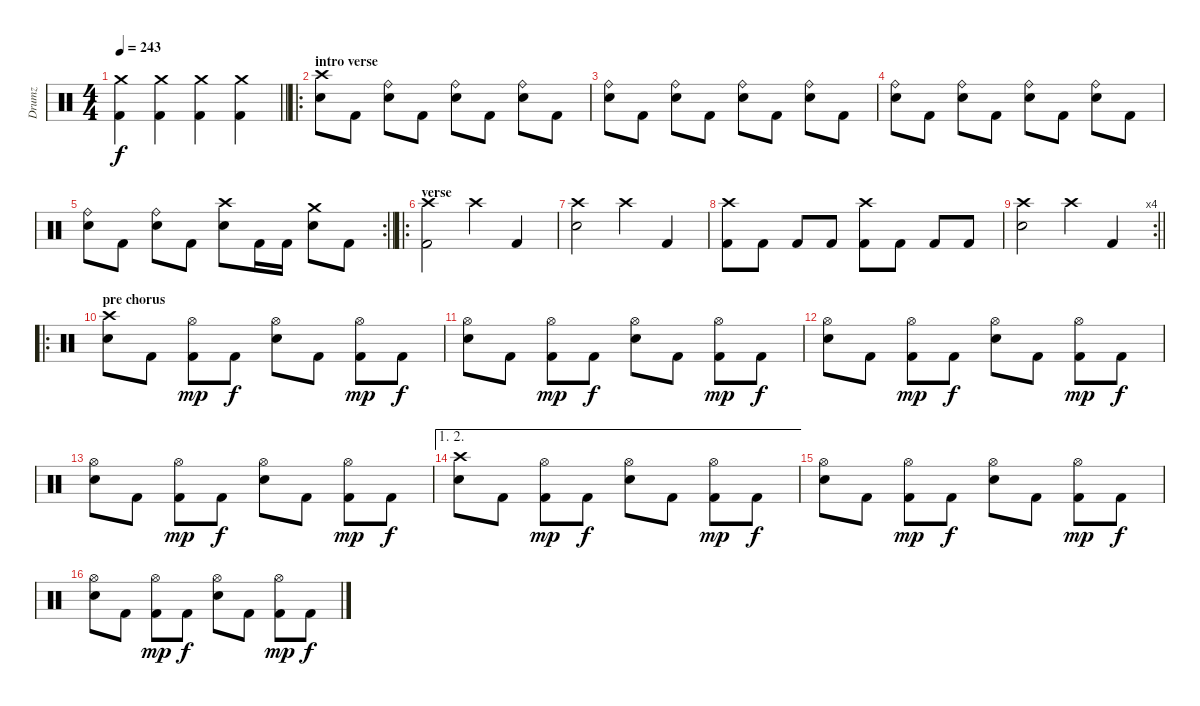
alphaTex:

\track ("Drumz" "Drumz") {instrument percussion}
\staff {score}
\articulation defaults
\ts (4 4)
\tempo 243
\clef neutral
\barLineRight lightlight
\ks c
("Crash medium (hit)" "Kick (hit) 2").4{dy f volume 16} ("Crash medium (hit)" "Kick (hit) 2").4 ("Crash medium (hit)" "Kick (hit) 2").4 ("Crash medium (hit)" "Kick (hit) 2").4 |
\ro
\section ("" "intro verse")
("Crash high (hit)" "Electric Snare (hit)").8 "Kick (hit) 2".8 ("Ride (bell)" "Electric Snare (hit)").8 "Kick (hit) 2".8 ("Ride (bell)" "Electric Snare (hit)").8 "Kick (hit) 2".8 ("Ride (bell)" "Electric Snare (hit)").8 "Kick (hit) 2".8 |
("Ride (bell)" "Electric Snare (hit)").8 "Kick (hit) 2".8 ("Ride (bell)" "Electric Snare (hit)").8 "Kick (hit) 2".8 ("Ride (bell)" "Electric Snare (hit)").8 "Kick (hit) 2".8 ("Ride (bell)" "Electric Snare (hit)").8 "Kick (hit) 2".8 |
("Ride (bell)" "Electric Snare (hit)").8 "Kick (hit) 2".8 ("Ride (bell)" "Electric Snare (hit)").8 "Kick (hit) 2".8 ("Ride (bell)" "Electric Snare (hit)").8 "Kick (hit) 2".8 ("Ride (bell)" "Electric Snare (hit)").8 "Kick (hit) 2".8 |
\rc 2
\barLineRight lightlight
("Ride (bell)" "Electric Snare (hit)").8 "Kick (hit) 2".8 ("Ride (bell)" "Electric Snare (hit)").8 "Kick (hit) 2".8 ("Crash high (hit)" "Electric Snare (hit)").8 "Kick (hit) 2".16 "Kick (hit) 2".16 ("Crash medium (hit)" "Electric Snare (hit)").8 "Kick (hit) 2".8 |
\ro
\section ("" "verse")
("Crash high (hit)" "Kick (hit) 2").2 "Crash high (hit)".4 "Kick (hit) 2".4 |
("Crash high (hit)" "Electric Snare (hit)").2 "Crash high (hit)".4 "Kick (hit) 2".4 |
("Crash high (hit)" "Kick (hit) 2").8 "Kick (hit) 2".8 "Kick (hit) 2".8 "Kick (hit) 2".8 ("Crash high (hit)" "Kick (hit) 2").8 "Kick (hit) 2".8 "Kick (hit) 2".8 "Kick (hit) 2".8 |
\rc 4
\barLineRight lightlight
("Crash high (hit)" "Electric Snare (hit)").2 "Crash high (hit)".4 "Kick (hit) 2".4 |
\ro
\section ("" "pre chorus")
("Crash high (hit)" "Electric Snare (hit)").8 "Kick (hit) 2".8 ("Hi-Hat (open)" "Kick (hit) 2").8{dy mp} "Kick (hit) 2".8{dy f} ("Hi-Hat (open)" "Electric Snare (hit)").8 "Kick (hit) 2".8 ("Hi-Hat (open)" "Kick (hit) 2").8{dy mp} "Kick (hit) 2".8{dy f} |
("Hi-Hat (open)" "Electric Snare (hit)").8 "Kick (hit) 2".8 ("Hi-Hat (open)" "Kick (hit) 2").8{dy mp} "Kick (hit) 2".8{dy f} ("Hi-Hat (open)" "Electric Snare (hit)").8 "Kick (hit) 2".8 ("Hi-Hat (open)" "Kick (hit) 2").8{dy mp} "Kick (hit) 2".8{dy f} |
("Hi-Hat (open)" "Electric Snare (hit)").8 "Kick (hit) 2".8 ("Hi-Hat (open)" "Kick (hit) 2").8{dy mp} "Kick (hit) 2".8{dy f} ("Hi-Hat (open)" "Electric Snare (hit)").8 "Kick (hit) 2".8 ("Hi-Hat (open)" "Kick (hit) 2").8{dy mp} "Kick (hit) 2".8{dy f} |
("Hi-Hat (open)" "Electric Snare (hit)").8 "Kick (hit) 2".8 ("Hi-Hat (open)" "Kick (hit) 2").8{dy mp} "Kick (hit) 2".8{dy f} ("Hi-Hat (open)" "Electric Snare (hit)").8 "Kick (hit) 2".8 ("Hi-Hat (open)" "Kick (hit) 2").8{dy mp} "Kick (hit) 2".8{dy f} |
\ae (1 2)
("Crash high (hit)" "Electric Snare (hit)").8 "Kick (hit) 2".8 ("Hi-Hat (open)" "Kick (hit) 2").8{dy mp} "Kick (hit) 2".8{dy f} ("Hi-Hat (open)" "Electric Snare (hit)").8 "Kick (hit) 2".8 ("Hi-Hat (open)" "Kick (hit) 2").8{dy mp} "Kick (hit) 2".8{dy f} |
("Hi-Hat (open)" "Electric Snare (hit)").8 "Kick (hit) 2".8 ("Hi-Hat (open)" "Kick (hit) 2").8{dy mp} "Kick (hit) 2".8{dy f} ("Hi-Hat (open)" "Electric Snare (hit)").8 "Kick (hit) 2".8 ("Hi-Hat (open)" "Kick (hit) 2").8{dy mp} "Kick (hit) 2".8{dy f} |
("Hi-Hat (open)" "Electric Snare (hit)").8 "Kick (hit) 2".8 ("Hi-Hat (open)" "Kick (hit) 2").8{dy mp} "Kick (hit) 2".8{dy f} ("Hi-Hat (open)" "Electric Snare (hit)").8 "Kick (hit) 2".8 ("Hi-Hat (open)" "Kick (hit) 2").8{dy mp} "Kick (hit) 2".8{dy f}
